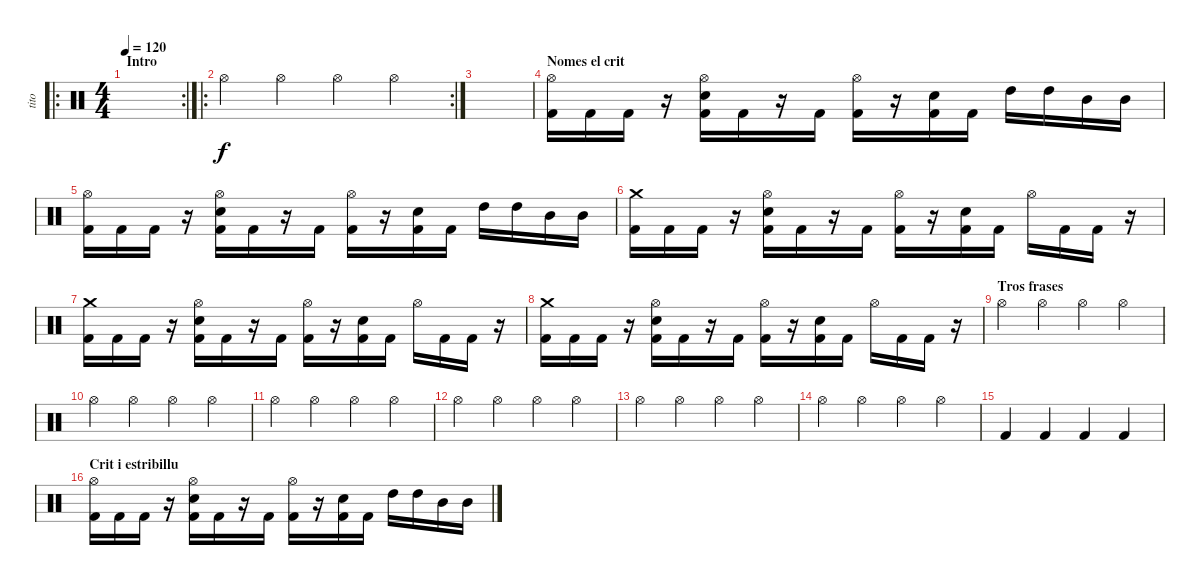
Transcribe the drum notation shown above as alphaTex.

\track ("tito" "tito") {instrument percussion}
\staff {score}
\articulation defaults
\ro
\rc 2
\ts (4 4)
\section ("" "Intro")
\tempo 120
\clef neutral
\ks c
|
\ro
\rc 2 "Hi-Hat (open)".4 "Hi-Hat (open)".4 "Hi-Hat (open)".4 "Hi-Hat (open)".4
|
|
\section ("" "Nomes el crit")
("Hi-Hat (open)" "Kick (hit) 2").16 "Kick (hit) 2".16 "Kick (hit) 2".16 r.16 ("Hi-Hat (open)" "Electric Snare (hit)" "Kick (hit) 2").16 "Kick (hit) 2".16 r.16 "Kick (hit) 2".16 ("Hi-Hat (open)" "Kick (hit) 2").16 r.16 ("Electric Snare (hit)" "Kick (hit) 2").16 "Kick (hit) 2".16 "High Tom (hit)".16 "High Tom (hit)".16 "Mid Tom (hit)".16 "Mid Tom (hit)".16 |
("Hi-Hat (open)" "Kick (hit) 2").16 "Kick (hit) 2".16 "Kick (hit) 2".16 r.16 ("Hi-Hat (open)" "Electric Snare (hit)" "Kick (hit) 2").16 "Kick (hit) 2".16 r.16 "Kick (hit) 2".16 ("Hi-Hat (open)" "Kick (hit) 2").16 r.16 ("Electric Snare (hit)" "Kick (hit) 2").16 "Kick (hit) 2".16 "High Tom (hit)".16 "High Tom (hit)".16 "Mid Tom (hit)".16 "Mid Tom (hit)".16 |
("Crash medium (hit)" "Kick (hit) 2").16 "Kick (hit) 2".16 "Kick (hit) 2".16 r.16 ("Hi-Hat (open)" "Electric Snare (hit)" "Kick (hit) 2").16 "Kick (hit) 2".16 r.16 "Kick (hit) 2".16 ("Hi-Hat (open)" "Kick (hit) 2").16 r.16 ("Electric Snare (hit)" "Kick (hit) 2").16 "Kick (hit) 2".16 "Hi-Hat (open)".16 "Kick (hit) 2".16 "Kick (hit) 2".16 r.16 |
("Crash medium (hit)" "Kick (hit) 2").16 "Kick (hit) 2".16 "Kick (hit) 2".16 r.16 ("Hi-Hat (open)" "Electric Snare (hit)" "Kick (hit) 2").16 "Kick (hit) 2".16 r.16 "Kick (hit) 2".16 ("Hi-Hat (open)" "Kick (hit) 2").16 r.16 ("Electric Snare (hit)" "Kick (hit) 2").16 "Kick (hit) 2".16 "Hi-Hat (open)".16 "Kick (hit) 2".16 "Kick (hit) 2".16 r.16 |
("Crash medium (hit)" "Kick (hit) 2").16 "Kick (hit) 2".16 "Kick (hit) 2".16 r.16 ("Hi-Hat (open)" "Electric Snare (hit)" "Kick (hit) 2").16 "Kick (hit) 2".16 r.16 "Kick (hit) 2".16 ("Hi-Hat (open)" "Kick (hit) 2").16 r.16 ("Electric Snare (hit)" "Kick (hit) 2").16 "Kick (hit) 2".16 "Hi-Hat (open)".16 "Kick (hit) 2".16 "Kick (hit) 2".16 r.16 |
\section ("" "Tros frases")
"Hi-Hat (open)".4 "Hi-Hat (open)".4 "Hi-Hat (open)".4 "Hi-Hat (open)".4 |
"Hi-Hat (open)".4 "Hi-Hat (open)".4 "Hi-Hat (open)".4 "Hi-Hat (open)".4 |
"Hi-Hat (open)".4 "Hi-Hat (open)".4 "Hi-Hat (open)".4 "Hi-Hat (open)".4 |
"Hi-Hat (open)".4 "Hi-Hat (open)".4 "Hi-Hat (open)".4 "Hi-Hat (open)".4 |
"Hi-Hat (open)".4 "Hi-Hat (open)".4 "Hi-Hat (open)".4 "Hi-Hat (open)".4 |
"Hi-Hat (open)".4 "Hi-Hat (open)".4 "Hi-Hat (open)".4 "Hi-Hat (open)".4 |
"Kick (hit) 2".4 "Kick (hit) 2".4 "Kick (hit) 2".4 "Kick (hit) 2".4 |
\section ("" "Crit i estribillu")
("Hi-Hat (open)" "Kick (hit) 2").16 "Kick (hit) 2".16 "Kick (hit) 2".16 r.16 ("Hi-Hat (open)" "Electric Snare (hit)" "Kick (hit) 2").16 "Kick (hit) 2".16 r.16 "Kick (hit) 2".16 ("Hi-Hat (open)" "Kick (hit) 2").16 r.16 ("Electric Snare (hit)" "Kick (hit) 2").16 "Kick (hit) 2".16 "High Tom (hit)".16 "High Tom (hit)".16 "Mid Tom (hit)".16 "Mid Tom (hit)".16
